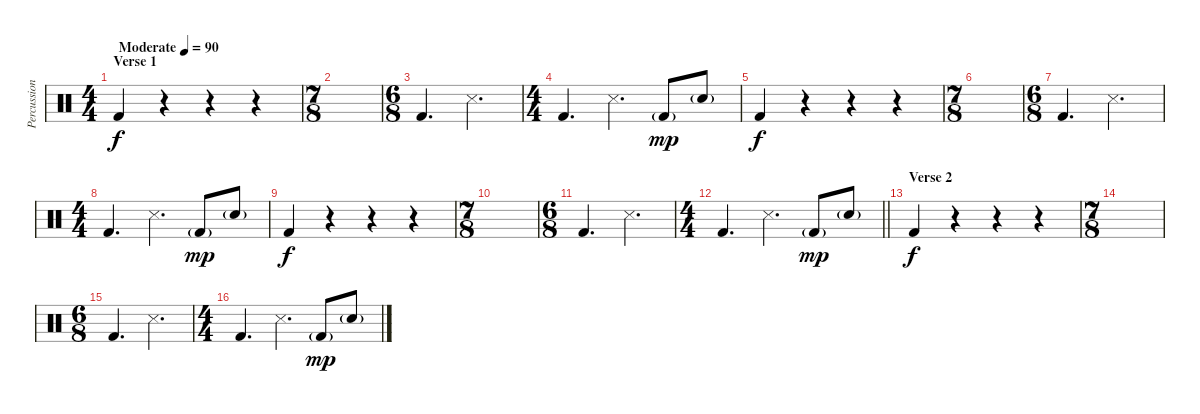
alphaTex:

\track ("Percussion" "Percussion") {instrument percussion}
\staff {score}
\articulation defaults
\ts (4 4)
\section ("" "Verse 1")
\tempo (90 "Moderate")
\clef neutral
\ks c "Kick (hit) 2".4{dy f}
r.4 r.4 r.4 |
\ts (7 8)
|
\ts (6 8)
"Kick (hit) 2".4{d} "Snare (side stick) 3".4{d} |
\ts (4 4)
"Kick (hit) 2".4{d} "Snare (side stick) 3".4{d} "Kick (hit) 2"{g}.8{dy mp} "Snare (hit) 2"{g}.8 |
"Kick (hit) 2".4{dy f} r.4 r.4 r.4 |
\ts (7 8)
|
\ts (6 8)
"Kick (hit) 2".4{d} "Snare (side stick) 3".4{d} |
\ts (4 4)
"Kick (hit) 2".4{d} "Snare (side stick) 3".4{d} "Kick (hit) 2"{g}.8{dy mp} "Snare (hit) 2"{g}.8 |
"Kick (hit) 2".4{dy f} r.4 r.4 r.4 |
\ts (7 8)
|
\ts (6 8)
"Kick (hit) 2".4{d} "Snare (side stick) 3".4{d} |
\ts (4 4)
\barLineRight lightlight "Kick (hit) 2".4{d} "Snare (side stick) 3".4{d} "Kick (hit) 2"{g}.8{dy mp} "Snare (hit) 2"{g}.8
|
\section ("" "Verse 2")
"Kick (hit) 2".4{dy f} r.4 r.4 r.4 |
\ts (7 8)
|
\ts (6 8)
"Kick (hit) 2".4{d} "Snare (side stick) 3".4{d} |
\ts (4 4)
"Kick (hit) 2".4{d} "Snare (side stick) 3".4{d} "Kick (hit) 2"{g}.8{dy mp} "Snare (hit) 2"{g}.8
